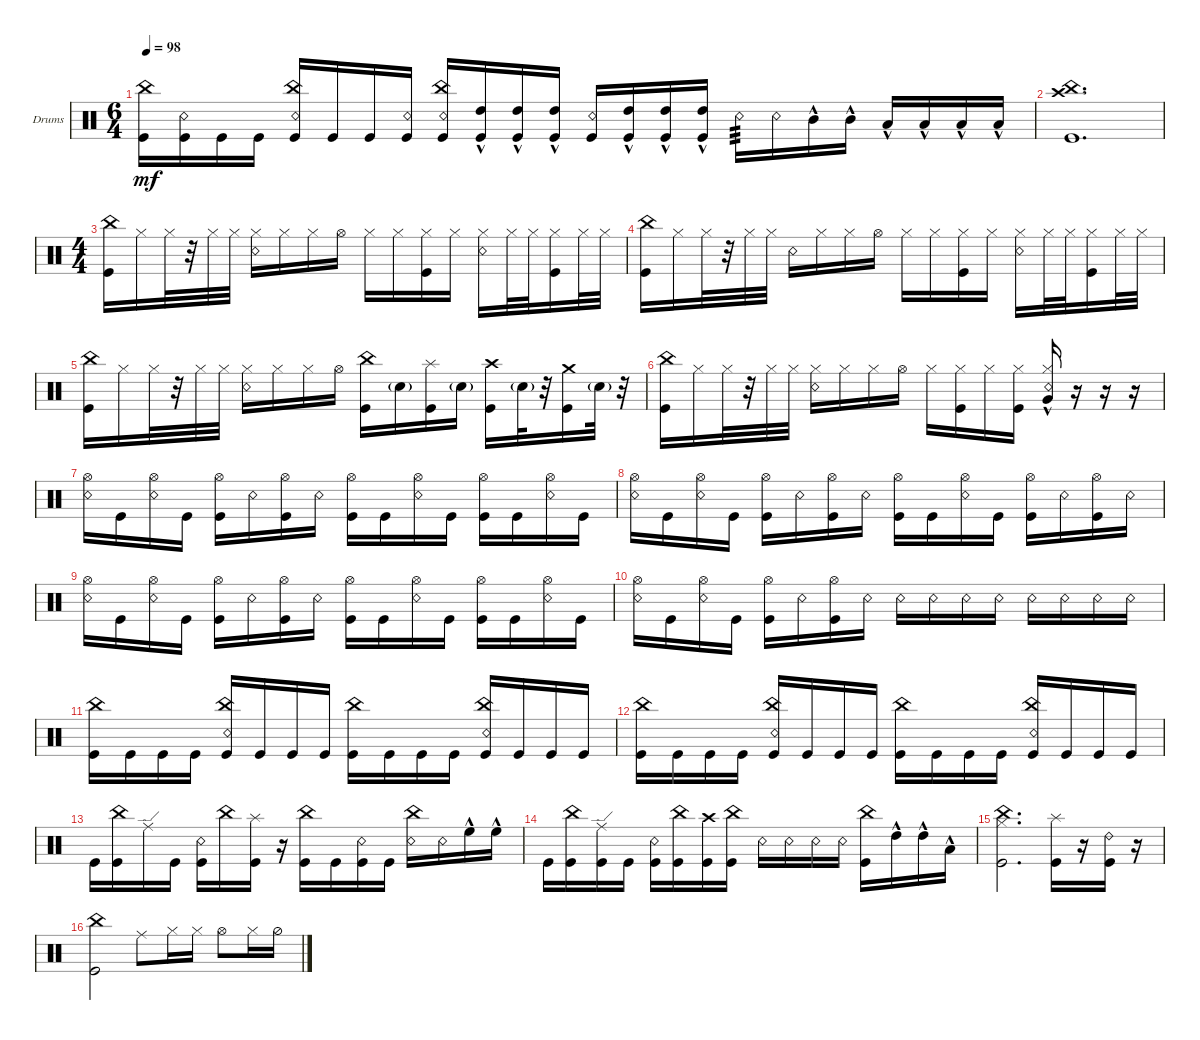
\defaultSystemsLayout 4
\bracketExtendMode groupsimilarinstruments
\firstSystemTrackNameOrientation horizontal
\otherSystemsTrackNameOrientation horizontal
\track ("Drumkit" "Drums") {instrument percussion}
\staff {score}
\articulation defaults
\ts (6 4)
\tempo 98
\clef neutral
\scale
0.333333
\ks c
("Kick (hit)" "China (hit)").16{dy mf} ("Kick (hit)" "Snare (rim shot)").16 "Kick (hit)".16 "Kick (hit)".16 ("Kick (hit)" "China (hit)" "Snare (rim shot)").16 "Kick (hit)".16 "Kick (hit)".16 ("Kick (hit)" "Snare (rim shot)").16 ("Kick (hit)" "China (hit)" "Snare (rim shot)").16 ("Kick (hit)" "High Tom (hit)"{hac}).16 ("Kick (hit)" "High Tom (hit)"{hac}).16 ("Kick (hit)" "High Tom (hit)"{hac}).16 ("Kick (hit)" "Snare (rim shot)").16 ("Kick (hit)" "High Tom (hit)"{hac}).16 ("Kick (hit)" "High Tom (hit)"{hac}).16 ("Kick (hit)" "High Tom (hit)"{hac}).16 "Snare (rim shot)".16{tp 3} "Snare (rim shot)".16 "Mid Tom (hit)"{hac}.16 "Mid Tom (hit)"{hac}.16 "Low Tom (hit)"{hac}.16 "Low Tom (hit)"{hac}.16 "Low Tom (hit)"{hac}.16 "Low Tom (hit)"{hac}.16 |
("Kick (hit)" "China (hit)" "Crash high (hit)").1{d} |
\ts (4 4)
\scale
0.333333 ("Kick (hit)" "China (hit)").16 "Hi-Hat (closed)".16 "Hi-Hat (closed)".32 r.32 "Hi-Hat (closed)".32 "Hi-Hat (closed)".32 ("Hi-Hat (closed)" "Snare (rim shot)").16 "Hi-Hat (closed)".16 "Hi-Hat (closed)".16 "Hi-Hat (open)".16 "Hi-Hat (closed)".16 "Hi-Hat (closed)".16 ("Hi-Hat (closed)" "Kick (hit)").16 "Hi-Hat (closed)".16 ("Hi-Hat (closed)" "Snare (rim shot)").16 "Hi-Hat (closed)".32 "Hi-Hat (closed)".32 ("Hi-Hat (closed)" "Kick (hit)").16 "Hi-Hat (closed)".32 "Hi-Hat (closed)".32 |
\scale
0.333333 ("Kick (hit)" "China (hit)").16 "Hi-Hat (closed)".16 "Hi-Hat (closed)".32 r.32 "Hi-Hat (closed)".32 "Hi-Hat (closed)".32 "Snare (rim shot)".16 "Hi-Hat (closed)".16 "Hi-Hat (closed)".16 "Hi-Hat (open)".16 "Hi-Hat (closed)".16 "Hi-Hat (closed)".16 ("Hi-Hat (closed)" "Kick (hit)").16 "Hi-Hat (closed)".16 ("Hi-Hat (closed)" "Snare (rim shot)").16 "Hi-Hat (closed)".32 "Hi-Hat (closed)".32 ("Hi-Hat (closed)" "Kick (hit)").16 "Hi-Hat (closed)".32 "Hi-Hat (closed)".32 |
\scale
0.333333 ("Kick (hit)" "China (hit)").16 "Hi-Hat (closed)".16 "Hi-Hat (closed)".32 r.32 "Hi-Hat (closed)".32 "Hi-Hat (closed)".32 ("Hi-Hat (closed)" "Snare (rim shot)").16 "Hi-Hat (closed)".16 "Hi-Hat (closed)".16 "Hi-Hat (open)".16 ("China (hit)" "Kick (hit)").16 "Snare (hit) 2"{g}.16 ("Kick (hit)" "Splash (hit)").16 "Snare (hit) 2"{g}.16 ("Kick (hit)" "Crash high (hit)").16 "Snare (hit) 2"{g}.32 r.32 ("Kick (hit)" "Crash medium (hit)").16 "Snare (hit) 2"{g}.32 r.32 |
\scale
0.333333 ("Kick (hit)" "China (hit)").16 "Hi-Hat (closed)".16 "Hi-Hat (closed)".32 r.32 "Hi-Hat (closed)".32 "Hi-Hat (closed)".32 ("Hi-Hat (closed)" "Snare (rim shot)").16 "Hi-Hat (closed)".16 "Hi-Hat (closed)".16 "Hi-Hat (open)".16 "Hi-Hat (closed)".16 ("Hi-Hat (closed)" "Kick (hit)").16 "Hi-Hat (closed)".16 ("Hi-Hat (closed)" "Kick (hit)").16 ("Hi-Hat (closed)" "Snare (rim shot)" "Very Low Tom (hit)"{hac}).16 r.16 r.16 r.16 |
\scale
0.333333 ("Snare (rim shot)" "Hi-Hat (open)").16 "Kick (hit)".16 ("Snare (rim shot)" "Hi-Hat (open)").16 "Kick (hit)".16 ("Kick (hit)" "Hi-Hat (open)").16 "Snare (rim shot)".16 ("Kick (hit)" "Hi-Hat (open)").16 "Snare (rim shot)".16 ("Kick (hit)" "Hi-Hat (open)").16 "Kick (hit)".16 ("Snare (rim shot)" "Hi-Hat (open)").16 "Kick (hit)".16 ("Kick (hit)" "Hi-Hat (open)").16 "Kick (hit)".16 ("Snare (rim shot)" "Hi-Hat (open)").16 "Kick (hit)".16 |
("Snare (rim shot)" "Hi-Hat (open)").16 "Kick (hit)".16 ("Snare (rim shot)" "Hi-Hat (open)").16 "Kick (hit)".16 ("Kick (hit)" "Hi-Hat (open)").16 "Snare (rim shot)".16 ("Kick (hit)" "Hi-Hat (open)").16 "Snare (rim shot)".16 ("Kick (hit)" "Hi-Hat (open)").16 "Kick (hit)".16 ("Snare (rim shot)" "Hi-Hat (open)").16 "Kick (hit)".16 ("Kick (hit)" "Hi-Hat (open)").16 "Snare (rim shot)".16 ("Kick (hit)" "Hi-Hat (open)").16 "Snare (rim shot)".16 |
("Snare (rim shot)" "Hi-Hat (open)").16 "Kick (hit)".16 ("Snare (rim shot)" "Hi-Hat (open)").16 "Kick (hit)".16 ("Kick (hit)" "Hi-Hat (open)").16 "Snare (rim shot)".16 ("Kick (hit)" "Hi-Hat (open)").16 "Snare (rim shot)".16 ("Kick (hit)" "Hi-Hat (open)").16 "Kick (hit)".16 ("Snare (rim shot)" "Hi-Hat (open)").16 "Kick (hit)".16 ("Kick (hit)" "Hi-Hat (open)").16 "Kick (hit)".16 ("Snare (rim shot)" "Hi-Hat (open)").16 "Kick (hit)".16 |
("Snare (rim shot)" "Hi-Hat (open)").16 "Kick (hit)".16 ("Snare (rim shot)" "Hi-Hat (open)").16 "Kick (hit)".16 ("Kick (hit)" "Hi-Hat (open)").16 "Snare (rim shot)".16 ("Kick (hit)" "Hi-Hat (open)").16 "Snare (rim shot)".16 "Snare (rim shot)".16 "Snare (rim shot)".16 "Snare (rim shot)".16 "Snare (rim shot)".16 "Snare (rim shot)".16 "Snare (rim shot)".16 "Snare (rim shot)".16 "Snare (rim shot)".16 |
\scale
0.333333 ("Kick (hit)" "China (hit)").16 "Kick (hit)".16 "Kick (hit)".16 "Kick (hit)".16 ("Kick (hit)" "China (hit)" "Snare (rim shot)").16 "Kick (hit)".16 "Kick (hit)".16 "Kick (hit)".16 ("Kick (hit)" "China (hit)").16 "Kick (hit)".16 "Kick (hit)".16 "Kick (hit)".16 ("Kick (hit)" "Snare (rim shot)" "China (hit)").16 "Kick (hit)".16 "Kick (hit)".16 "Kick (hit)".16 |
\scale
0.333333 ("Kick (hit)" "China (hit)").16 "Kick (hit)".16 "Kick (hit)".16 "Kick (hit)".16 ("Kick (hit)" "China (hit)" "Snare (rim shot)").16 "Kick (hit)".16 "Kick (hit)".16 "Kick (hit)".16 ("Kick (hit)" "China (hit)").16 "Kick (hit)".16 "Kick (hit)".16 "Kick (hit)".16 ("Kick (hit)" "Snare (rim shot)" "China (hit)").16 "Kick (hit)".16 "Kick (hit)".16 "Kick (hit)".16 |
\scale
0.333333 "Kick (hit)".16 ("Kick (hit)" "China (hit)").16 "Ride (edge)".16 "Kick (hit)".16 ("Kick (hit)" "Snare (rim shot)").16 "China (hit)".16 ("Kick (hit)" "Splash (hit)").16 r.16 ("Kick (hit)" "China (hit)").16 "Kick (hit)".16 ("Kick (hit)" "Snare (rim shot)").16 "Kick (hit)".16 ("Snare (rim shot)" "China (hit)").16 "Snare (rim shot)".16 "High Floor Tom (hit)"{hac}.16 "High Floor Tom (hit)"{hac}.16 |
\scale
0.333333 "Kick (hit)".16 ("Kick (hit)" "China (hit)").16 ("Kick (hit)" "Ride (edge)").16 "Kick (hit)".16 ("Kick (hit)" "Snare (rim shot)").16 ("Kick (hit)" "China (hit)").16 ("Kick (hit)" "Crash high (hit)").16 ("Kick (hit)" "China (hit)").16 "Snare (rim shot)".16 "Snare (rim shot)".16 "Snare (rim shot)".16 "Snare (rim shot)".16 ("Kick (hit)" "China (hit)").16 "High Tom (hit)"{hac}.16 "High Tom (hit)"{hac}.16 "Low Tom (hit)"{hac}.16 |
\scale
0.333333 ("China (hit)" "Kick (hit)" "Hi-Hat (closed)").2{d} ("Splash (hit)" "Kick (hit)").16 r.16 ("Kick (hit)" "Ride (bell) 2").16 r.16 |
\scale
0.333333 ("Kick (hit)" "China (hit)").2 "Ride (middle)".8 "Hi-Hat (closed)".16 "Hi-Hat (closed)".16 "Hi-Hat (open)".8 "Hi-Hat (closed)".16 "Hi-Hat (half)".16
